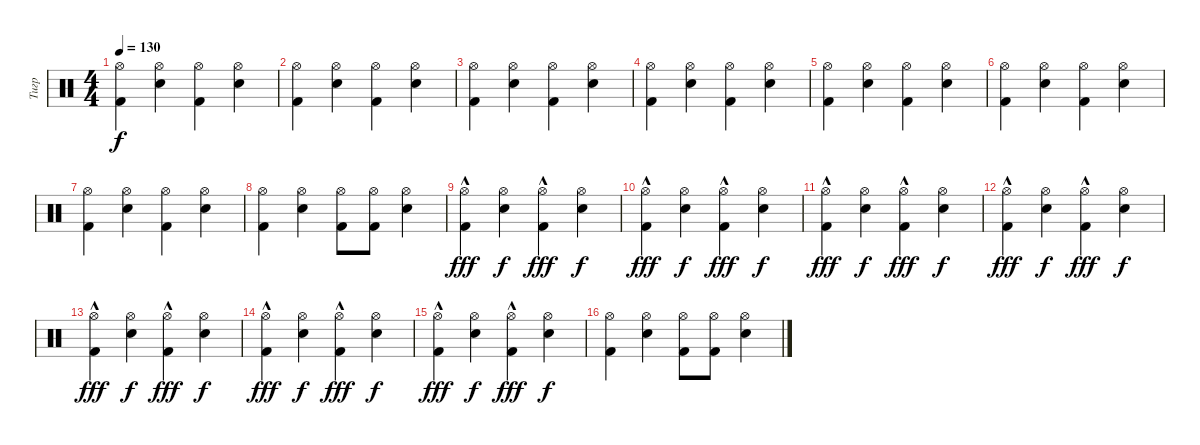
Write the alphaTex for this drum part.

\track ("Тигр" "Тигр") {instrument percussion}
\staff {score}
\articulation defaults
\ts (4 4)
\tempo 130
\clef neutral
\ks c
("Hi-Hat (open)" "Kick (hit) 2").4{dy f} ("Hi-Hat (open)" "Snare (hit) 2").4 ("Hi-Hat (open)" "Kick (hit) 2").4 ("Hi-Hat (open)" "Snare (hit) 2").4 |
("Hi-Hat (open)" "Kick (hit) 2").4 ("Hi-Hat (open)" "Snare (hit) 2").4 ("Hi-Hat (open)" "Kick (hit) 2").4 ("Hi-Hat (open)" "Snare (hit) 2").4 |
("Hi-Hat (open)" "Kick (hit) 2").4 ("Hi-Hat (open)" "Snare (hit) 2").4 ("Hi-Hat (open)" "Kick (hit) 2").4 ("Hi-Hat (open)" "Snare (hit) 2").4 |
("Hi-Hat (open)" "Kick (hit) 2").4 ("Hi-Hat (open)" "Snare (hit) 2").4 ("Hi-Hat (open)" "Kick (hit) 2").4 ("Hi-Hat (open)" "Snare (hit) 2").4 |
("Hi-Hat (open)" "Kick (hit) 2").4 ("Hi-Hat (open)" "Snare (hit) 2").4 ("Hi-Hat (open)" "Kick (hit) 2").4 ("Hi-Hat (open)" "Snare (hit) 2").4 |
("Hi-Hat (open)" "Kick (hit) 2").4 ("Hi-Hat (open)" "Snare (hit) 2").4 ("Hi-Hat (open)" "Kick (hit) 2").4 ("Hi-Hat (open)" "Snare (hit) 2").4 |
("Hi-Hat (open)" "Kick (hit) 2").4 ("Hi-Hat (open)" "Snare (hit) 2").4 ("Hi-Hat (open)" "Kick (hit) 2").4 ("Hi-Hat (open)" "Snare (hit) 2").4 |
("Hi-Hat (open)" "Kick (hit) 2").4 ("Hi-Hat (open)" "Snare (hit) 2").4 ("Hi-Hat (open)" "Kick (hit) 2").8 ("Hi-Hat (open)" "Kick (hit) 2").8 ("Hi-Hat (open)" "Snare (hit) 2").4 |
("Hi-Hat (open)"{hac} "Kick (hit) 2").4{dy fff} ("Hi-Hat (open)" "Snare (hit) 2").4{dy f} ("Hi-Hat (open)"{hac} "Kick (hit) 2").4{dy fff} ("Hi-Hat (open)" "Snare (hit) 2").4{dy f} |
("Hi-Hat (open)"{hac} "Kick (hit) 2").4{dy fff} ("Hi-Hat (open)" "Snare (hit) 2").4{dy f} ("Hi-Hat (open)"{hac} "Kick (hit) 2").4{dy fff} ("Hi-Hat (open)" "Snare (hit) 2").4{dy f} |
("Hi-Hat (open)"{hac} "Kick (hit) 2").4{dy fff} ("Hi-Hat (open)" "Snare (hit) 2").4{dy f} ("Hi-Hat (open)"{hac} "Kick (hit) 2").4{dy fff} ("Hi-Hat (open)" "Snare (hit) 2").4{dy f} |
("Hi-Hat (open)"{hac} "Kick (hit) 2").4{dy fff} ("Hi-Hat (open)" "Snare (hit) 2").4{dy f} ("Hi-Hat (open)"{hac} "Kick (hit) 2").4{dy fff} ("Hi-Hat (open)" "Snare (hit) 2").4{dy f} |
("Hi-Hat (open)"{hac} "Kick (hit) 2").4{dy fff} ("Hi-Hat (open)" "Snare (hit) 2").4{dy f} ("Hi-Hat (open)"{hac} "Kick (hit) 2").4{dy fff} ("Hi-Hat (open)" "Snare (hit) 2").4{dy f} |
("Hi-Hat (open)"{hac} "Kick (hit) 2").4{dy fff} ("Hi-Hat (open)" "Snare (hit) 2").4{dy f} ("Hi-Hat (open)"{hac} "Kick (hit) 2").4{dy fff} ("Hi-Hat (open)" "Snare (hit) 2").4{dy f} |
("Hi-Hat (open)"{hac} "Kick (hit) 2").4{dy fff} ("Hi-Hat (open)" "Snare (hit) 2").4{dy f} ("Hi-Hat (open)"{hac} "Kick (hit) 2").4{dy fff} ("Hi-Hat (open)" "Snare (hit) 2").4{dy f} |
("Hi-Hat (open)" "Kick (hit) 2").4 ("Hi-Hat (open)" "Snare (hit) 2").4 ("Hi-Hat (open)" "Kick (hit) 2").8 ("Hi-Hat (open)" "Kick (hit) 2").8 ("Hi-Hat (open)" "Snare (hit) 2").4
